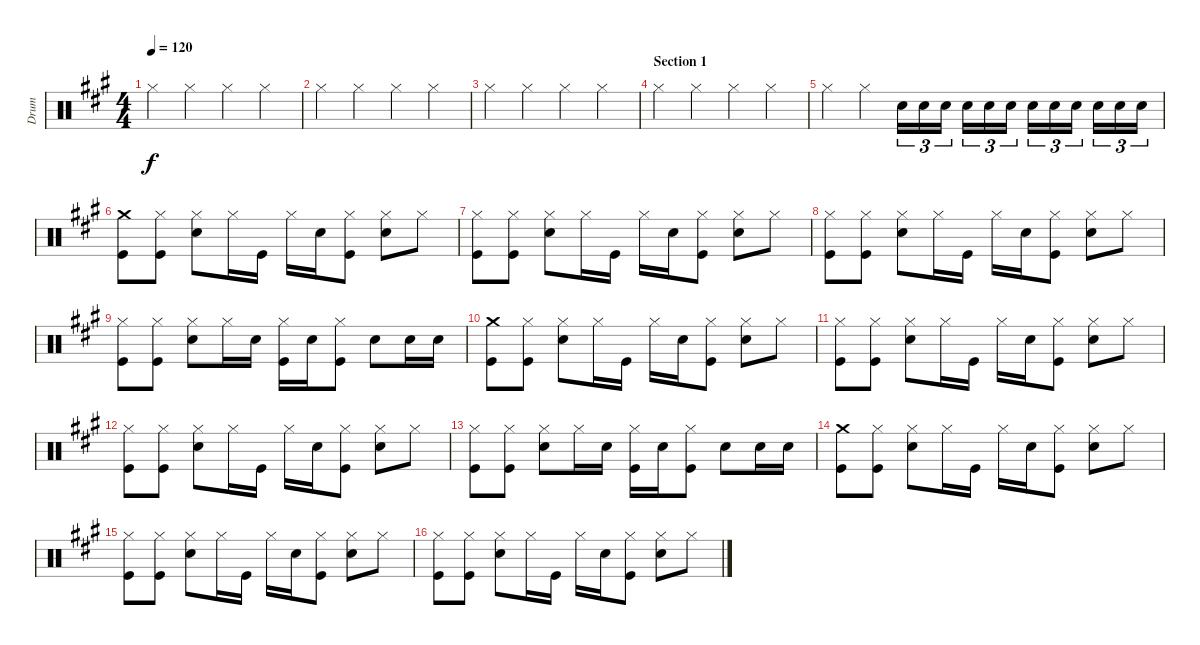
\track ("Drum" "Drum") {instrument percussion}
\staff {score}
\articulation defaults
\ts (4 4)
\tempo 120
\clef neutral
\ks a "Hi-Hat (closed)".4{dy f} "Hi-Hat (closed)".4 "Hi-Hat (closed)".4 "Hi-Hat (closed)".4
|
"Hi-Hat (closed)".4 "Hi-Hat (closed)".4 "Hi-Hat (closed)".4 "Hi-Hat (closed)".4 |
"Hi-Hat (closed)".4 "Hi-Hat (closed)".4 "Hi-Hat (closed)".4 "Hi-Hat (closed)".4 |
\section ("" "Section 1")
"Hi-Hat (closed)".4 "Hi-Hat (closed)".4 "Hi-Hat (closed)".4 "Hi-Hat (closed)".4 |
"Hi-Hat (closed)".4 "Hi-Hat (closed)".4 "Snare (hit) 2".16{tu (3 2)} "Snare (hit) 2".16{tu (3 2)} "Snare (hit) 2".16{tu (3 2)} "Snare (hit) 2".16{tu (3 2)} "Snare (hit) 2".16{tu (3 2)} "Snare (hit) 2".16{tu (3 2)} "Snare (hit) 2".16{tu (3 2)} "Snare (hit) 2".16{tu (3 2)} "Snare (hit) 2".16{tu (3 2)} "Snare (hit) 2".16{tu (3 2)} "Snare (hit) 2".16{tu (3 2)} "Snare (hit) 2".16{tu (3 2)} |
("Crash medium (hit)" "Kick (hit)").8 ("Hi-Hat (closed)" "Kick (hit)").8 ("Hi-Hat (closed)" "Snare (hit) 2").8 "Hi-Hat (closed)".16 "Kick (hit)".16 "Hi-Hat (closed)".16 "Snare (hit) 2".16 ("Hi-Hat (closed)" "Kick (hit)").8 ("Hi-Hat (closed)" "Snare (hit) 2").8 "Hi-Hat (closed)".8 |
("Hi-Hat (closed)" "Kick (hit)").8 ("Hi-Hat (closed)" "Kick (hit)").8 ("Hi-Hat (closed)" "Snare (hit) 2").8 "Hi-Hat (closed)".16 "Kick (hit)".16 "Hi-Hat (closed)".16 "Snare (hit) 2".16 ("Hi-Hat (closed)" "Kick (hit)").8 ("Hi-Hat (closed)" "Snare (hit) 2").8 "Hi-Hat (closed)".8 |
("Hi-Hat (closed)" "Kick (hit)").8 ("Hi-Hat (closed)" "Kick (hit)").8 ("Hi-Hat (closed)" "Snare (hit) 2").8 "Hi-Hat (closed)".16 "Kick (hit)".16 "Hi-Hat (closed)".16 "Snare (hit) 2".16 ("Hi-Hat (closed)" "Kick (hit)").8 ("Hi-Hat (closed)" "Snare (hit) 2").8 "Hi-Hat (closed)".8 |
("Hi-Hat (closed)" "Kick (hit)").8 ("Hi-Hat (closed)" "Kick (hit)").8 ("Hi-Hat (closed)" "Snare (hit) 2").8 "Hi-Hat (closed)".16 "Snare (hit) 2".16 ("Hi-Hat (closed)" "Kick (hit)").16 "Snare (hit) 2".16 ("Hi-Hat (closed)" "Kick (hit)").8 "Snare (hit) 2".8 "Snare (hit) 2".16 "Snare (hit) 2".16 |
("Crash medium (hit)" "Kick (hit)").8 ("Hi-Hat (closed)" "Kick (hit)").8 ("Hi-Hat (closed)" "Snare (hit) 2").8 "Hi-Hat (closed)".16 "Kick (hit)".16 "Hi-Hat (closed)".16 "Snare (hit) 2".16 ("Hi-Hat (closed)" "Kick (hit)").8 ("Hi-Hat (closed)" "Snare (hit) 2").8 "Hi-Hat (closed)".8 |
("Hi-Hat (closed)" "Kick (hit)").8 ("Hi-Hat (closed)" "Kick (hit)").8 ("Hi-Hat (closed)" "Snare (hit) 2").8 "Hi-Hat (closed)".16 "Kick (hit)".16 "Hi-Hat (closed)".16 "Snare (hit) 2".16 ("Hi-Hat (closed)" "Kick (hit)").8 ("Hi-Hat (closed)" "Snare (hit) 2").8 "Hi-Hat (closed)".8 |
("Hi-Hat (closed)" "Kick (hit)").8 ("Hi-Hat (closed)" "Kick (hit)").8 ("Hi-Hat (closed)" "Snare (hit) 2").8 "Hi-Hat (closed)".16 "Kick (hit)".16 "Hi-Hat (closed)".16 "Snare (hit) 2".16 ("Hi-Hat (closed)" "Kick (hit)").8 ("Hi-Hat (closed)" "Snare (hit) 2").8 "Hi-Hat (closed)".8 |
("Hi-Hat (closed)" "Kick (hit)").8 ("Hi-Hat (closed)" "Kick (hit)").8 ("Hi-Hat (closed)" "Snare (hit) 2").8 "Hi-Hat (closed)".16 "Snare (hit) 2".16 ("Hi-Hat (closed)" "Kick (hit)").16 "Snare (hit) 2".16 ("Hi-Hat (closed)" "Kick (hit)").8 "Snare (hit) 2".8 "Snare (hit) 2".16 "Snare (hit) 2".16 |
("Crash medium (hit)" "Kick (hit)").8 ("Hi-Hat (closed)" "Kick (hit)").8 ("Hi-Hat (closed)" "Snare (hit) 2").8 "Hi-Hat (closed)".16 "Kick (hit)".16 "Hi-Hat (closed)".16 "Snare (hit) 2".16 ("Hi-Hat (closed)" "Kick (hit)").8 ("Hi-Hat (closed)" "Snare (hit) 2").8 "Hi-Hat (closed)".8 |
("Hi-Hat (closed)" "Kick (hit)").8 ("Hi-Hat (closed)" "Kick (hit)").8 ("Hi-Hat (closed)" "Snare (hit) 2").8 "Hi-Hat (closed)".16 "Kick (hit)".16 "Hi-Hat (closed)".16 "Snare (hit) 2".16 ("Hi-Hat (closed)" "Kick (hit)").8 ("Hi-Hat (closed)" "Snare (hit) 2").8 "Hi-Hat (closed)".8 |
("Hi-Hat (closed)" "Kick (hit)").8 ("Hi-Hat (closed)" "Kick (hit)").8 ("Hi-Hat (closed)" "Snare (hit) 2").8 "Hi-Hat (closed)".16 "Kick (hit)".16 "Hi-Hat (closed)".16 "Snare (hit) 2".16 ("Hi-Hat (closed)" "Kick (hit)").8 ("Hi-Hat (closed)" "Snare (hit) 2").8 "Hi-Hat (closed)".8
